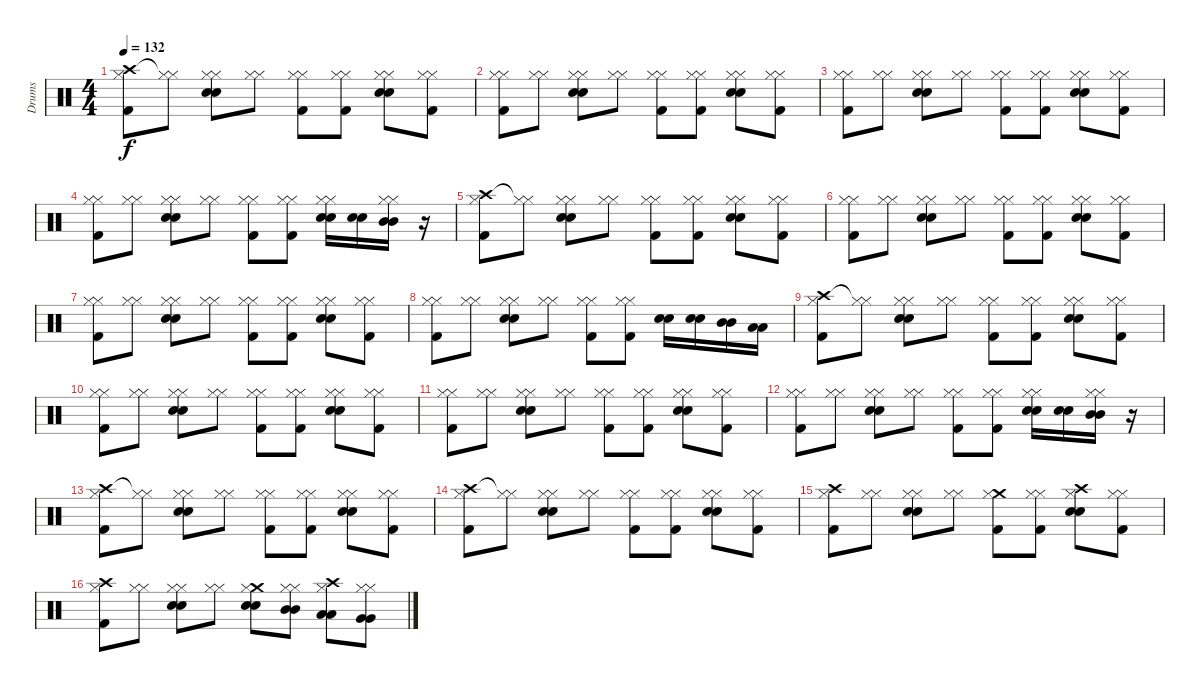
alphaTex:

\track ("Drums" "Drums") {instrument percussion}
\staff {score}
\articulation defaults
\ts (4 4)
\tempo 132
\clef neutral
\ks c
("Crash high (hit)" "Hi-Hat (closed)" "Kick (hit) 2").8{dy f} ("Hi-Hat (closed)"{t} "Hi-Hat (closed)").8 ("Hi-Hat (closed)" "Hi-Hat (closed)" "Electric Snare (hit)" "Electric Snare (hit)").8 ("Hi-Hat (closed)" "Hi-Hat (closed)").8 ("Hi-Hat (closed)" "Hi-Hat (closed)" "Kick (hit) 2").8 ("Hi-Hat (closed)" "Hi-Hat (closed)" "Kick (hit) 2").8 ("Hi-Hat (closed)" "Hi-Hat (closed)" "Electric Snare (hit)" "Electric Snare (hit)").8 ("Hi-Hat (closed)" "Hi-Hat (closed)" "Kick (hit) 2").8 |
("Hi-Hat (closed)" "Hi-Hat (closed)" "Kick (hit) 2").8 ("Hi-Hat (closed)" "Hi-Hat (closed)").8 ("Hi-Hat (closed)" "Hi-Hat (closed)" "Electric Snare (hit)" "Electric Snare (hit)").8 ("Hi-Hat (closed)" "Hi-Hat (closed)").8 ("Hi-Hat (closed)" "Hi-Hat (closed)" "Kick (hit) 2").8 ("Hi-Hat (closed)" "Hi-Hat (closed)" "Kick (hit) 2").8 ("Hi-Hat (closed)" "Hi-Hat (closed)" "Electric Snare (hit)" "Electric Snare (hit)").8 ("Hi-Hat (closed)" "Hi-Hat (closed)" "Kick (hit) 2").8 |
("Hi-Hat (closed)" "Hi-Hat (closed)" "Kick (hit) 2").8 ("Hi-Hat (closed)" "Hi-Hat (closed)").8 ("Hi-Hat (closed)" "Hi-Hat (closed)" "Electric Snare (hit)" "Electric Snare (hit)").8 ("Hi-Hat (closed)" "Hi-Hat (closed)").8 ("Hi-Hat (closed)" "Hi-Hat (closed)" "Kick (hit) 2").8 ("Hi-Hat (closed)" "Hi-Hat (closed)" "Kick (hit) 2").8 ("Hi-Hat (closed)" "Hi-Hat (closed)" "Electric Snare (hit)" "Electric Snare (hit)").8 ("Hi-Hat (closed)" "Hi-Hat (closed)" "Kick (hit) 2").8 |
("Hi-Hat (closed)" "Hi-Hat (closed)" "Kick (hit) 2").8 ("Hi-Hat (closed)" "Hi-Hat (closed)").8 ("Hi-Hat (closed)" "Hi-Hat (closed)" "Electric Snare (hit)" "Electric Snare (hit)").8 ("Hi-Hat (closed)" "Hi-Hat (closed)").8 ("Hi-Hat (closed)" "Hi-Hat (closed)" "Kick (hit) 2").8 ("Hi-Hat (closed)" "Hi-Hat (closed)" "Kick (hit) 2").8 ("Hi-Hat (closed)" "Hi-Hat (closed)" "Electric Snare (hit)" "Electric Snare (hit)").16 ("Electric Snare (hit)" "Electric Snare (hit)").16 ("Hi-Hat (closed)" "Hi-Hat (closed)" "Mid Tom (hit)" "Mid Tom (hit)").16 r.16 |
("Crash high (hit)" "Hi-Hat (closed)" "Kick (hit) 2").8 ("Hi-Hat (closed)"{t} "Hi-Hat (closed)").8 ("Hi-Hat (closed)" "Hi-Hat (closed)" "Electric Snare (hit)" "Electric Snare (hit)").8 ("Hi-Hat (closed)" "Hi-Hat (closed)").8 ("Hi-Hat (closed)" "Hi-Hat (closed)" "Kick (hit) 2").8 ("Hi-Hat (closed)" "Hi-Hat (closed)" "Kick (hit) 2").8 ("Hi-Hat (closed)" "Hi-Hat (closed)" "Electric Snare (hit)" "Electric Snare (hit)").8 ("Hi-Hat (closed)" "Hi-Hat (closed)" "Kick (hit) 2").8 |
("Hi-Hat (closed)" "Hi-Hat (closed)" "Kick (hit) 2").8 ("Hi-Hat (closed)" "Hi-Hat (closed)").8 ("Hi-Hat (closed)" "Hi-Hat (closed)" "Electric Snare (hit)" "Electric Snare (hit)").8 ("Hi-Hat (closed)" "Hi-Hat (closed)").8 ("Hi-Hat (closed)" "Hi-Hat (closed)" "Kick (hit) 2").8 ("Hi-Hat (closed)" "Hi-Hat (closed)" "Kick (hit) 2").8 ("Hi-Hat (closed)" "Hi-Hat (closed)" "Electric Snare (hit)" "Electric Snare (hit)").8 ("Hi-Hat (closed)" "Hi-Hat (closed)" "Kick (hit) 2").8 |
("Hi-Hat (closed)" "Hi-Hat (closed)" "Kick (hit) 2").8 ("Hi-Hat (closed)" "Hi-Hat (closed)").8 ("Hi-Hat (closed)" "Hi-Hat (closed)" "Electric Snare (hit)" "Electric Snare (hit)").8 ("Hi-Hat (closed)" "Hi-Hat (closed)").8 ("Hi-Hat (closed)" "Hi-Hat (closed)" "Kick (hit) 2").8 ("Hi-Hat (closed)" "Hi-Hat (closed)" "Kick (hit) 2").8 ("Hi-Hat (closed)" "Hi-Hat (closed)" "Electric Snare (hit)" "Electric Snare (hit)").8 ("Hi-Hat (closed)" "Hi-Hat (closed)" "Kick (hit) 2").8 |
("Hi-Hat (closed)" "Hi-Hat (closed)" "Kick (hit) 2").8 ("Hi-Hat (closed)" "Hi-Hat (closed)").8 ("Hi-Hat (closed)" "Hi-Hat (closed)" "Electric Snare (hit)" "Electric Snare (hit)").8 ("Hi-Hat (closed)" "Hi-Hat (closed)").8 ("Hi-Hat (closed)" "Hi-Hat (closed)" "Kick (hit) 2").8 ("Hi-Hat (closed)" "Hi-Hat (closed)" "Kick (hit) 2").8 ("Electric Snare (hit)" "Electric Snare (hit)").16 ("Electric Snare (hit)" "Electric Snare (hit)").16 ("Mid Tom (hit)" "Mid Tom (hit)").16 ("Low Tom (hit)" "Low Tom (hit)").16 |
("Crash high (hit)" "Hi-Hat (closed)" "Kick (hit) 2").8 ("Hi-Hat (closed)"{t} "Hi-Hat (closed)").8 ("Hi-Hat (closed)" "Hi-Hat (closed)" "Electric Snare (hit)" "Electric Snare (hit)").8 ("Hi-Hat (closed)" "Hi-Hat (closed)").8 ("Hi-Hat (closed)" "Hi-Hat (closed)" "Kick (hit) 2").8 ("Hi-Hat (closed)" "Hi-Hat (closed)" "Kick (hit) 2").8 ("Hi-Hat (closed)" "Hi-Hat (closed)" "Electric Snare (hit)" "Electric Snare (hit)").8 ("Hi-Hat (closed)" "Hi-Hat (closed)" "Kick (hit) 2").8 |
("Hi-Hat (closed)" "Hi-Hat (closed)" "Kick (hit) 2").8 ("Hi-Hat (closed)" "Hi-Hat (closed)").8 ("Hi-Hat (closed)" "Hi-Hat (closed)" "Electric Snare (hit)" "Electric Snare (hit)").8 ("Hi-Hat (closed)" "Hi-Hat (closed)").8 ("Hi-Hat (closed)" "Hi-Hat (closed)" "Kick (hit) 2").8 ("Hi-Hat (closed)" "Hi-Hat (closed)" "Kick (hit) 2").8 ("Hi-Hat (closed)" "Hi-Hat (closed)" "Electric Snare (hit)" "Electric Snare (hit)").8 ("Hi-Hat (closed)" "Hi-Hat (closed)" "Kick (hit) 2").8 |
("Hi-Hat (closed)" "Hi-Hat (closed)" "Kick (hit) 2").8 ("Hi-Hat (closed)" "Hi-Hat (closed)").8 ("Hi-Hat (closed)" "Hi-Hat (closed)" "Electric Snare (hit)" "Electric Snare (hit)").8 ("Hi-Hat (closed)" "Hi-Hat (closed)").8 ("Hi-Hat (closed)" "Hi-Hat (closed)" "Kick (hit) 2").8 ("Hi-Hat (closed)" "Hi-Hat (closed)" "Kick (hit) 2").8 ("Hi-Hat (closed)" "Hi-Hat (closed)" "Electric Snare (hit)" "Electric Snare (hit)").8 ("Hi-Hat (closed)" "Hi-Hat (closed)" "Kick (hit) 2").8 |
("Hi-Hat (closed)" "Hi-Hat (closed)" "Kick (hit) 2").8 ("Hi-Hat (closed)" "Hi-Hat (closed)").8 ("Hi-Hat (closed)" "Hi-Hat (closed)" "Electric Snare (hit)" "Electric Snare (hit)").8 ("Hi-Hat (closed)" "Hi-Hat (closed)").8 ("Hi-Hat (closed)" "Hi-Hat (closed)" "Kick (hit) 2").8 ("Hi-Hat (closed)" "Hi-Hat (closed)" "Kick (hit) 2").8 ("Hi-Hat (closed)" "Hi-Hat (closed)" "Electric Snare (hit)" "Electric Snare (hit)").16 ("Electric Snare (hit)" "Electric Snare (hit)").16 ("Hi-Hat (closed)" "Hi-Hat (closed)" "Mid Tom (hit)" "Mid Tom (hit)").16 r.16 |
("Crash high (hit)" "Hi-Hat (closed)" "Kick (hit) 2").8 ("Hi-Hat (closed)"{t} "Hi-Hat (closed)").8 ("Hi-Hat (closed)" "Hi-Hat (closed)" "Electric Snare (hit)" "Electric Snare (hit)").8 ("Hi-Hat (closed)" "Hi-Hat (closed)").8 ("Hi-Hat (closed)" "Hi-Hat (closed)" "Kick (hit) 2").8 ("Hi-Hat (closed)" "Hi-Hat (closed)" "Kick (hit) 2").8 ("Hi-Hat (closed)" "Hi-Hat (closed)" "Electric Snare (hit)" "Electric Snare (hit)").8 ("Hi-Hat (closed)" "Hi-Hat (closed)" "Kick (hit) 2").8 |
("Crash high (hit)" "Hi-Hat (closed)" "Kick (hit) 2").8 ("Hi-Hat (closed)"{t} "Hi-Hat (closed)").8 ("Hi-Hat (closed)" "Hi-Hat (closed)" "Electric Snare (hit)" "Electric Snare (hit)").8 ("Hi-Hat (closed)" "Hi-Hat (closed)").8 ("Hi-Hat (closed)" "Hi-Hat (closed)" "Kick (hit) 2").8 ("Hi-Hat (closed)" "Hi-Hat (closed)" "Kick (hit) 2").8 ("Hi-Hat (closed)" "Hi-Hat (closed)" "Electric Snare (hit)" "Electric Snare (hit)").8 ("Hi-Hat (closed)" "Hi-Hat (closed)" "Kick (hit) 2").8 |
("Crash high (hit)" "Hi-Hat (closed)" "Kick (hit) 2").8 ("Hi-Hat (closed)" "Hi-Hat (closed)").8 ("Hi-Hat (closed)" "Hi-Hat (closed)" "Electric Snare (hit)" "Electric Snare (hit)").8 ("Hi-Hat (closed)" "Hi-Hat (closed)").8 ("Crash medium (hit)" "Hi-Hat (closed)" "Kick (hit) 2").8 ("Hi-Hat (closed)" "Hi-Hat (closed)" "Kick (hit) 2").8 ("Crash high (hit)" "Hi-Hat (closed)" "Electric Snare (hit)" "Electric Snare (hit)").8 ("Hi-Hat (closed)" "Hi-Hat (closed)" "Kick (hit) 2").8 |
("Crash high (hit)" "Hi-Hat (closed)" "Kick (hit) 2").8 ("Hi-Hat (closed)" "Hi-Hat (closed)").8 ("Hi-Hat (closed)" "Hi-Hat (closed)" "Electric Snare (hit)" "Electric Snare (hit)").8 ("Hi-Hat (closed)" "Hi-Hat (closed)").8 ("Crash medium (hit)" "Hi-Hat (closed)" "Electric Snare (hit)" "Electric Snare (hit)").8 ("Hi-Hat (closed)" "Hi-Hat (closed)" "Mid Tom (hit)" "Mid Tom (hit)").8 ("Crash high (hit)" "Hi-Hat (closed)" "Low Tom (hit)" "Low Tom (hit)").8 ("Hi-Hat (closed)" "Hi-Hat (closed)" "Very Low Tom (hit)" "Very Low Tom (hit)").8
